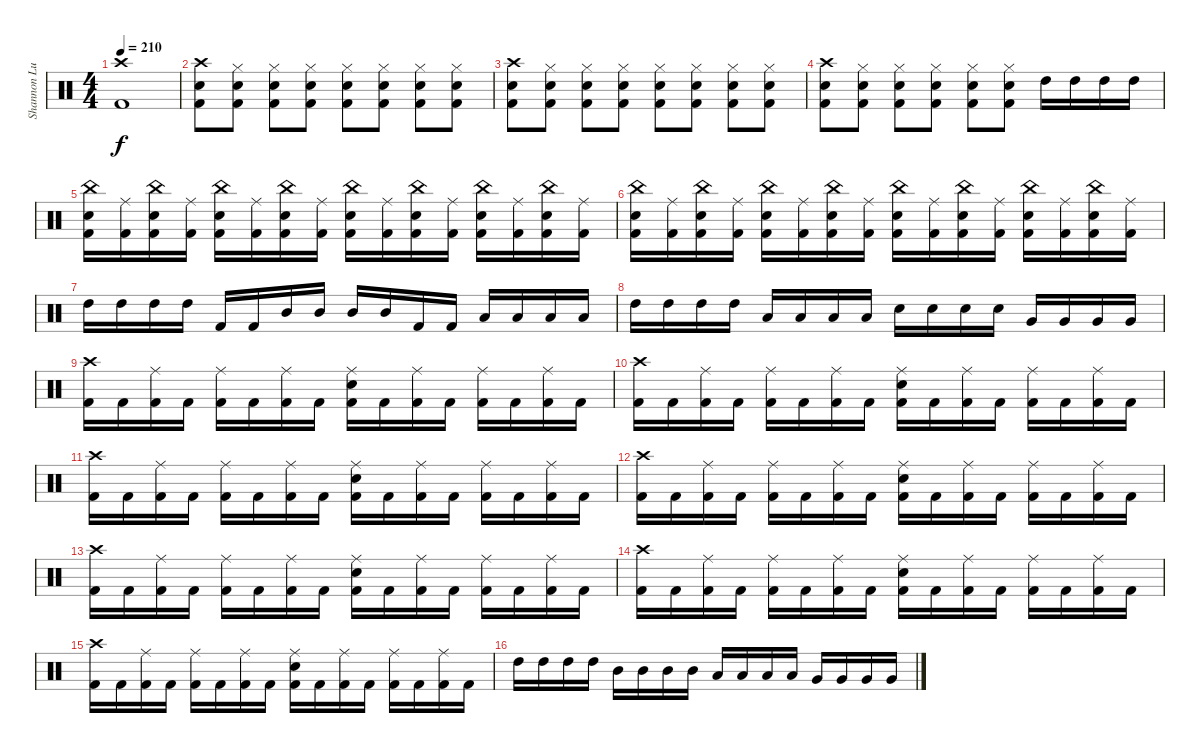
\track ("Shannon Lucas" "Shannon Lu") {instrument percussion}
\staff {score}
\articulation defaults
\ts (4 4)
\tempo 210
\clef neutral
\ks c
("Crash high (hit)" "Kick (hit) 2").1{dy f} |
("Crash high (hit)" "Electric Snare (hit)" "Kick (hit) 2").8 ("Hi-Hat (closed)" "Electric Snare (hit)" "Kick (hit) 2").8 ("Hi-Hat (closed)" "Electric Snare (hit)" "Kick (hit) 2").8 ("Hi-Hat (closed)" "Electric Snare (hit)" "Kick (hit) 2").8 ("Hi-Hat (closed)" "Electric Snare (hit)" "Kick (hit) 2").8 ("Hi-Hat (closed)" "Electric Snare (hit)" "Kick (hit) 2").8 ("Hi-Hat (closed)" "Electric Snare (hit)" "Kick (hit) 2").8 ("Hi-Hat (closed)" "Electric Snare (hit)" "Kick (hit) 2").8 |
("Crash high (hit)" "Electric Snare (hit)" "Kick (hit) 2").8 ("Hi-Hat (closed)" "Electric Snare (hit)" "Kick (hit) 2").8 ("Hi-Hat (closed)" "Electric Snare (hit)" "Kick (hit) 2").8 ("Hi-Hat (closed)" "Electric Snare (hit)" "Kick (hit) 2").8 ("Hi-Hat (closed)" "Electric Snare (hit)" "Kick (hit) 2").8 ("Hi-Hat (closed)" "Electric Snare (hit)" "Kick (hit) 2").8 ("Hi-Hat (closed)" "Electric Snare (hit)" "Kick (hit) 2").8 ("Hi-Hat (closed)" "Electric Snare (hit)" "Kick (hit) 2").8 |
("Crash high (hit)" "Electric Snare (hit)" "Kick (hit) 2").8 ("Hi-Hat (closed)" "Electric Snare (hit)" "Kick (hit) 2").8 ("Hi-Hat (closed)" "Electric Snare (hit)" "Kick (hit) 2").8 ("Hi-Hat (closed)" "Electric Snare (hit)" "Kick (hit) 2").8 ("Hi-Hat (closed)" "Electric Snare (hit)" "Kick (hit) 2").8 ("Hi-Hat (closed)" "Electric Snare (hit)" "Kick (hit) 2").8 "High Tom (hit)".16 "High Tom (hit)".16 "High Tom (hit)".16 "High Tom (hit)".16 |
("China (hit)" "Electric Snare (hit)" "Kick (hit) 2").16 ("Ride (middle)" "Kick (hit) 2").16 ("China (hit)" "Electric Snare (hit)" "Kick (hit) 2").16 ("Ride (middle)" "Kick (hit) 2").16 ("China (hit)" "Electric Snare (hit)" "Kick (hit) 2").16 ("Ride (middle)" "Kick (hit) 2").16 ("China (hit)" "Electric Snare (hit)" "Kick (hit) 2").16 ("Ride (middle)" "Kick (hit) 2").16 ("China (hit)" "Electric Snare (hit)" "Kick (hit) 2").16 ("Ride (middle)" "Kick (hit) 2").16 ("China (hit)" "Electric Snare (hit)" "Kick (hit) 2").16 ("Ride (middle)" "Kick (hit) 2").16 ("China (hit)" "Electric Snare (hit)" "Kick (hit) 2").16 ("Ride (middle)" "Kick (hit) 2").16 ("China (hit)" "Electric Snare (hit)" "Kick (hit) 2").16 ("Ride (middle)" "Kick (hit) 2").16 |
("China (hit)" "Electric Snare (hit)" "Kick (hit) 2").16 ("Ride (middle)" "Kick (hit) 2").16 ("China (hit)" "Electric Snare (hit)" "Kick (hit) 2").16 ("Ride (middle)" "Kick (hit) 2").16 ("China (hit)" "Electric Snare (hit)" "Kick (hit) 2").16 ("Ride (middle)" "Kick (hit) 2").16 ("China (hit)" "Electric Snare (hit)" "Kick (hit) 2").16 ("Ride (middle)" "Kick (hit) 2").16 ("China (hit)" "Electric Snare (hit)" "Kick (hit) 2").16 ("Ride (middle)" "Kick (hit) 2").16 ("China (hit)" "Electric Snare (hit)" "Kick (hit) 2").16 ("Ride (middle)" "Kick (hit) 2").16 ("China (hit)" "Electric Snare (hit)" "Kick (hit) 2").16 ("Ride (middle)" "Kick (hit) 2").16 ("China (hit)" "Electric Snare (hit)" "Kick (hit) 2").16 ("Ride (middle)" "Kick (hit) 2").16 |
"High Tom (hit)".16 "High Tom (hit)".16 "High Tom (hit)".16 "High Tom (hit)".16 "Kick (hit) 2".16 "Kick (hit) 2".16 "Mid Tom (hit)".16 "Mid Tom (hit)".16 "Mid Tom (hit)".16 "Mid Tom (hit)".16 "Kick (hit) 2".16 "Kick (hit) 2".16 "Low Tom (hit)".16 "Low Tom (hit)".16 "Low Tom (hit)".16 "Low Tom (hit)".16 |
"High Tom (hit)".16 "High Tom (hit)".16 "High Tom (hit)".16 "High Tom (hit)".16 "Low Tom (hit)".16 "Low Tom (hit)".16 "Low Tom (hit)".16 "Low Tom (hit)".16 "Electric Snare (hit)".16 "Electric Snare (hit)".16 "Electric Snare (hit)".16 "Electric Snare (hit)".16 "Very Low Tom (hit)".16 "Very Low Tom (hit)".16 "Very Low Tom (hit)".16 "Very Low Tom (hit)".16 |
("Crash high (hit)" "Kick (hit) 2").16 "Kick (hit) 2".16 ("Ride (middle)" "Kick (hit) 2").16 "Kick (hit) 2".16 ("Ride (middle)" "Kick (hit) 2").16 "Kick (hit) 2".16 ("Ride (middle)" "Kick (hit) 2").16 "Kick (hit) 2".16 ("Ride (middle)" "Electric Snare (hit)" "Kick (hit) 2").16 "Kick (hit) 2".16 ("Ride (middle)" "Kick (hit) 2").16 "Kick (hit) 2".16 ("Ride (middle)" "Kick (hit) 2").16 "Kick (hit) 2".16 ("Ride (middle)" "Kick (hit) 2").16 "Kick (hit) 2".16 |
("Crash high (hit)" "Kick (hit) 2").16 "Kick (hit) 2".16 ("Ride (middle)" "Kick (hit) 2").16 "Kick (hit) 2".16 ("Ride (middle)" "Kick (hit) 2").16 "Kick (hit) 2".16 ("Ride (middle)" "Kick (hit) 2").16 "Kick (hit) 2".16 ("Ride (middle)" "Electric Snare (hit)" "Kick (hit) 2").16 "Kick (hit) 2".16 ("Ride (middle)" "Kick (hit) 2").16 "Kick (hit) 2".16 ("Ride (middle)" "Kick (hit) 2").16 "Kick (hit) 2".16 ("Ride (middle)" "Kick (hit) 2").16 "Kick (hit) 2".16 |
("Crash high (hit)" "Kick (hit) 2").16 "Kick (hit) 2".16 ("Ride (middle)" "Kick (hit) 2").16 "Kick (hit) 2".16 ("Ride (middle)" "Kick (hit) 2").16 "Kick (hit) 2".16 ("Ride (middle)" "Kick (hit) 2").16 "Kick (hit) 2".16 ("Ride (middle)" "Electric Snare (hit)" "Kick (hit) 2").16 "Kick (hit) 2".16 ("Ride (middle)" "Kick (hit) 2").16 "Kick (hit) 2".16 ("Ride (middle)" "Kick (hit) 2").16 "Kick (hit) 2".16 ("Ride (middle)" "Kick (hit) 2").16 "Kick (hit) 2".16 |
("Crash high (hit)" "Kick (hit) 2").16 "Kick (hit) 2".16 ("Ride (middle)" "Kick (hit) 2").16 "Kick (hit) 2".16 ("Ride (middle)" "Kick (hit) 2").16 "Kick (hit) 2".16 ("Ride (middle)" "Kick (hit) 2").16 "Kick (hit) 2".16 ("Ride (middle)" "Electric Snare (hit)" "Kick (hit) 2").16 "Kick (hit) 2".16 ("Ride (middle)" "Kick (hit) 2").16 "Kick (hit) 2".16 ("Ride (middle)" "Kick (hit) 2").16 "Kick (hit) 2".16 ("Ride (middle)" "Kick (hit) 2").16 "Kick (hit) 2".16 |
("Crash high (hit)" "Kick (hit) 2").16 "Kick (hit) 2".16 ("Ride (middle)" "Kick (hit) 2").16 "Kick (hit) 2".16 ("Ride (middle)" "Kick (hit) 2").16 "Kick (hit) 2".16 ("Ride (middle)" "Kick (hit) 2").16 "Kick (hit) 2".16 ("Ride (middle)" "Electric Snare (hit)" "Kick (hit) 2").16 "Kick (hit) 2".16 ("Ride (middle)" "Kick (hit) 2").16 "Kick (hit) 2".16 ("Ride (middle)" "Kick (hit) 2").16 "Kick (hit) 2".16 ("Ride (middle)" "Kick (hit) 2").16 "Kick (hit) 2".16 |
("Crash high (hit)" "Kick (hit) 2").16 "Kick (hit) 2".16 ("Ride (middle)" "Kick (hit) 2").16 "Kick (hit) 2".16 ("Ride (middle)" "Kick (hit) 2").16 "Kick (hit) 2".16 ("Ride (middle)" "Kick (hit) 2").16 "Kick (hit) 2".16 ("Ride (middle)" "Electric Snare (hit)" "Kick (hit) 2").16 "Kick (hit) 2".16 ("Ride (middle)" "Kick (hit) 2").16 "Kick (hit) 2".16 ("Ride (middle)" "Kick (hit) 2").16 "Kick (hit) 2".16 ("Ride (middle)" "Kick (hit) 2").16 "Kick (hit) 2".16 |
("Crash high (hit)" "Kick (hit) 2").16 "Kick (hit) 2".16 ("Ride (middle)" "Kick (hit) 2").16 "Kick (hit) 2".16 ("Ride (middle)" "Kick (hit) 2").16 "Kick (hit) 2".16 ("Ride (middle)" "Kick (hit) 2").16 "Kick (hit) 2".16 ("Ride (middle)" "Electric Snare (hit)" "Kick (hit) 2").16 "Kick (hit) 2".16 ("Ride (middle)" "Kick (hit) 2").16 "Kick (hit) 2".16 ("Ride (middle)" "Kick (hit) 2").16 "Kick (hit) 2".16 ("Ride (middle)" "Kick (hit) 2").16 "Kick (hit) 2".16 |
"High Tom (hit)".16 "High Tom (hit)".16 "High Tom (hit)".16 "High Tom (hit)".16 "Mid Tom (hit)".16 "Mid Tom (hit)".16 "Mid Tom (hit)".16 "Mid Tom (hit)".16 "Low Tom (hit)".16 "Low Tom (hit)".16 "Low Tom (hit)".16 "Low Tom (hit)".16 "Very Low Tom (hit)".16 "Very Low Tom (hit)".16 "Very Low Tom (hit)".16 "Very Low Tom (hit)".16
